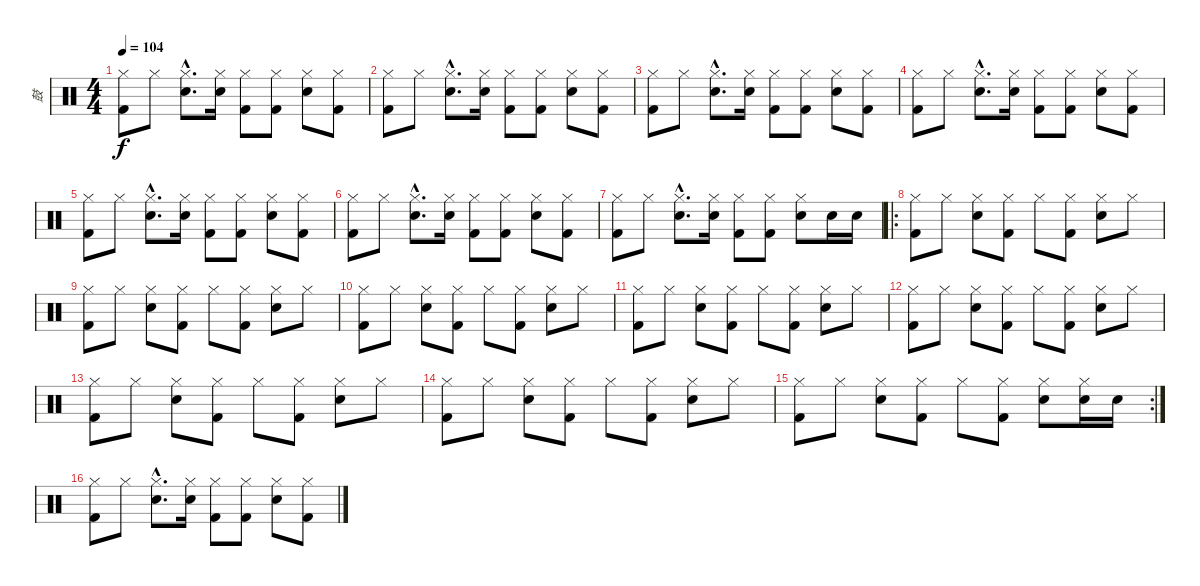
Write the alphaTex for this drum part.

\track ("鼓" "鼓") {instrument percussion}
\staff {score}
\articulation defaults
\ts (4 4)
\tempo 104
\clef neutral
\ks c
("Hi-Hat (closed)" "Kick (hit) 2").8{dy f} "Hi-Hat (closed)".8 ("Hi-Hat (closed)"{hac} "Snare (hit) 2"{hac}).8{d} ("Hi-Hat (closed)" "Snare (hit) 2").16 ("Hi-Hat (closed)" "Kick (hit) 2").8 ("Hi-Hat (closed)" "Kick (hit) 2").8 ("Hi-Hat (closed)" "Snare (hit) 2").8 ("Hi-Hat (closed)" "Kick (hit) 2").8 |
("Hi-Hat (closed)" "Kick (hit) 2").8 "Hi-Hat (closed)".8 ("Hi-Hat (closed)"{hac} "Snare (hit) 2"{hac}).8{d} ("Hi-Hat (closed)" "Snare (hit) 2").16 ("Hi-Hat (closed)" "Kick (hit) 2").8 ("Hi-Hat (closed)" "Kick (hit) 2").8 ("Hi-Hat (closed)" "Snare (hit) 2").8 ("Hi-Hat (closed)" "Kick (hit) 2").8 |
("Hi-Hat (closed)" "Kick (hit) 2").8 "Hi-Hat (closed)".8 ("Hi-Hat (closed)"{hac} "Snare (hit) 2"{hac}).8{d} ("Hi-Hat (closed)" "Snare (hit) 2").16 ("Hi-Hat (closed)" "Kick (hit) 2").8 ("Hi-Hat (closed)" "Kick (hit) 2").8 ("Hi-Hat (closed)" "Snare (hit) 2").8 ("Hi-Hat (closed)" "Kick (hit) 2").8 |
("Hi-Hat (closed)" "Kick (hit) 2").8 "Hi-Hat (closed)".8 ("Hi-Hat (closed)"{hac} "Snare (hit) 2"{hac}).8{d} ("Hi-Hat (closed)" "Snare (hit) 2").16 ("Hi-Hat (closed)" "Kick (hit) 2").8 ("Hi-Hat (closed)" "Kick (hit) 2").8 ("Hi-Hat (closed)" "Snare (hit) 2").8 ("Hi-Hat (closed)" "Kick (hit) 2").8 |
("Hi-Hat (closed)" "Kick (hit) 2").8 "Hi-Hat (closed)".8 ("Hi-Hat (closed)"{hac} "Snare (hit) 2"{hac}).8{d} ("Hi-Hat (closed)" "Snare (hit) 2").16 ("Hi-Hat (closed)" "Kick (hit) 2").8 ("Hi-Hat (closed)" "Kick (hit) 2").8 ("Hi-Hat (closed)" "Snare (hit) 2").8 ("Hi-Hat (closed)" "Kick (hit) 2").8 |
("Hi-Hat (closed)" "Kick (hit) 2").8 "Hi-Hat (closed)".8 ("Hi-Hat (closed)"{hac} "Snare (hit) 2"{hac}).8{d} ("Hi-Hat (closed)" "Snare (hit) 2").16 ("Hi-Hat (closed)" "Kick (hit) 2").8 ("Hi-Hat (closed)" "Kick (hit) 2").8 ("Hi-Hat (closed)" "Snare (hit) 2").8 ("Hi-Hat (closed)" "Kick (hit) 2").8 |
("Hi-Hat (closed)" "Kick (hit) 2").8 "Hi-Hat (closed)".8 ("Hi-Hat (closed)"{hac} "Snare (hit) 2"{hac}).8{d} ("Hi-Hat (closed)" "Snare (hit) 2").16 ("Hi-Hat (closed)" "Kick (hit) 2").8 ("Hi-Hat (closed)" "Kick (hit) 2").8 ("Hi-Hat (closed)" "Snare (hit) 2").8 "Snare (hit) 2".16 "Snare (hit) 2".16 |
\ro
("Hi-Hat (closed)" "Kick (hit) 2").8 "Hi-Hat (closed)".8 ("Hi-Hat (closed)" "Snare (hit) 2").8 ("Hi-Hat (closed)" "Kick (hit) 2").8 "Hi-Hat (closed)".8 ("Hi-Hat (closed)" "Kick (hit) 2").8 ("Hi-Hat (closed)" "Snare (hit) 2").8 "Hi-Hat (closed)".8 |
("Hi-Hat (closed)" "Kick (hit) 2").8 "Hi-Hat (closed)".8 ("Hi-Hat (closed)" "Snare (hit) 2").8 ("Hi-Hat (closed)" "Kick (hit) 2").8 "Hi-Hat (closed)".8 ("Hi-Hat (closed)" "Kick (hit) 2").8 ("Hi-Hat (closed)" "Snare (hit) 2").8 "Hi-Hat (closed)".8 |
("Hi-Hat (closed)" "Kick (hit) 2").8 "Hi-Hat (closed)".8 ("Hi-Hat (closed)" "Snare (hit) 2").8 ("Hi-Hat (closed)" "Kick (hit) 2").8 "Hi-Hat (closed)".8 ("Hi-Hat (closed)" "Kick (hit) 2").8 ("Hi-Hat (closed)" "Snare (hit) 2").8 "Hi-Hat (closed)".8 |
("Hi-Hat (closed)" "Kick (hit) 2").8 "Hi-Hat (closed)".8 ("Hi-Hat (closed)" "Snare (hit) 2").8 ("Hi-Hat (closed)" "Kick (hit) 2").8 "Hi-Hat (closed)".8 ("Hi-Hat (closed)" "Kick (hit) 2").8 ("Hi-Hat (closed)" "Snare (hit) 2").8 "Hi-Hat (closed)".8 |
("Hi-Hat (closed)" "Kick (hit) 2").8 "Hi-Hat (closed)".8 ("Hi-Hat (closed)" "Snare (hit) 2").8 ("Hi-Hat (closed)" "Kick (hit) 2").8 "Hi-Hat (closed)".8 ("Hi-Hat (closed)" "Kick (hit) 2").8 ("Hi-Hat (closed)" "Snare (hit) 2").8 "Hi-Hat (closed)".8 |
("Hi-Hat (closed)" "Kick (hit) 2").8 "Hi-Hat (closed)".8 ("Hi-Hat (closed)" "Snare (hit) 2").8 ("Hi-Hat (closed)" "Kick (hit) 2").8 "Hi-Hat (closed)".8 ("Hi-Hat (closed)" "Kick (hit) 2").8 ("Hi-Hat (closed)" "Snare (hit) 2").8 "Hi-Hat (closed)".8 |
("Hi-Hat (closed)" "Kick (hit) 2").8 "Hi-Hat (closed)".8 ("Hi-Hat (closed)" "Snare (hit) 2").8 ("Hi-Hat (closed)" "Kick (hit) 2").8 "Hi-Hat (closed)".8 ("Hi-Hat (closed)" "Kick (hit) 2").8 ("Hi-Hat (closed)" "Snare (hit) 2").8 "Hi-Hat (closed)".8 |
\rc 2
("Hi-Hat (closed)" "Kick (hit) 2").8 "Hi-Hat (closed)".8 ("Hi-Hat (closed)" "Snare (hit) 2").8 ("Hi-Hat (closed)" "Kick (hit) 2").8 "Hi-Hat (closed)".8 ("Hi-Hat (closed)" "Kick (hit) 2").8 ("Hi-Hat (closed)" "Snare (hit) 2").8 ("Hi-Hat (closed)" "Snare (hit) 2").16 "Snare (hit) 2".16 |
("Hi-Hat (closed)" "Kick (hit) 2").8 "Hi-Hat (closed)".8 ("Hi-Hat (closed)"{hac} "Snare (hit) 2"{hac}).8{d} ("Hi-Hat (closed)" "Snare (hit) 2").16 ("Hi-Hat (closed)" "Kick (hit) 2").8 ("Hi-Hat (closed)" "Kick (hit) 2").8 ("Hi-Hat (closed)" "Snare (hit) 2").8 ("Hi-Hat (closed)" "Kick (hit) 2").8
